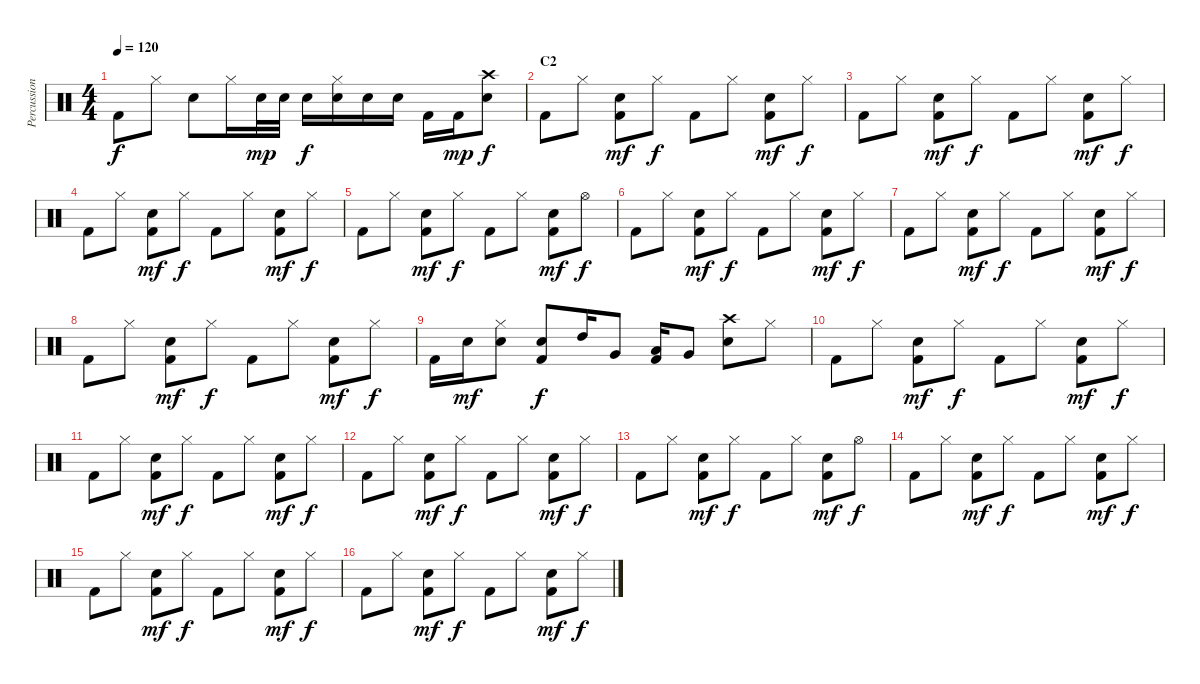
\track ("Percussions" "Percussion") {instrument percussion}
\staff {score}
\articulation defaults
\ts (4 4)
\tempo 120
\clef neutral
\ks c "Kick (hit) 2".8{dy f} "Hi-Hat (closed)".8 "Electric Snare (hit)".8 "Hi-Hat (closed)".16 "Electric Snare (hit)".32{dy mp} "Electric Snare (hit)".32 "Electric Snare (hit)".16{dy f}
("Hi-Hat (closed)" "Electric Snare (hit)").16 "Electric Snare (hit)".16 "Electric Snare (hit)".16 "Kick (hit) 2".16 "Kick (hit) 2".16{dy mp} ("Crash high (hit)" "Electric Snare (hit)").8{dy f} |
\section ("" "C2")
"Kick (hit) 2".8 "Hi-Hat (closed)".8 ("Electric Snare (hit)" "Kick (hit) 2").8{dy mf} "Hi-Hat (closed)".8{dy f} "Kick (hit) 2".8 "Hi-Hat (closed)".8 ("Electric Snare (hit)" "Kick (hit) 2").8{dy mf} "Hi-Hat (closed)".8{dy f} |
"Kick (hit) 2".8 "Hi-Hat (closed)".8 ("Electric Snare (hit)" "Kick (hit) 2").8{dy mf} "Hi-Hat (closed)".8{dy f} "Kick (hit) 2".8 "Hi-Hat (closed)".8 ("Electric Snare (hit)" "Kick (hit) 2").8{dy mf} "Hi-Hat (closed)".8{dy f} |
"Kick (hit) 2".8 "Hi-Hat (closed)".8 ("Electric Snare (hit)" "Kick (hit) 2").8{dy mf} "Hi-Hat (closed)".8{dy f} "Kick (hit) 2".8 "Hi-Hat (closed)".8 ("Electric Snare (hit)" "Kick (hit) 2").8{dy mf} "Hi-Hat (closed)".8{dy f} |
"Kick (hit) 2".8 "Hi-Hat (closed)".8 ("Electric Snare (hit)" "Kick (hit) 2").8{dy mf} "Hi-Hat (closed)".8{dy f} "Kick (hit) 2".8 "Hi-Hat (closed)".8 ("Electric Snare (hit)" "Kick (hit) 2").8{dy mf} "Hi-Hat (open)".8{dy f} |
"Kick (hit) 2".8 "Hi-Hat (closed)".8 ("Electric Snare (hit)" "Kick (hit) 2").8{dy mf} "Hi-Hat (closed)".8{dy f} "Kick (hit) 2".8 "Hi-Hat (closed)".8 ("Electric Snare (hit)" "Kick (hit) 2").8{dy mf} "Hi-Hat (closed)".8{dy f} |
"Kick (hit) 2".8 "Hi-Hat (closed)".8 ("Electric Snare (hit)" "Kick (hit) 2").8{dy mf} "Hi-Hat (closed)".8{dy f} "Kick (hit) 2".8 "Hi-Hat (closed)".8 ("Electric Snare (hit)" "Kick (hit) 2").8{dy mf} "Hi-Hat (closed)".8{dy f} |
"Kick (hit) 2".8 "Hi-Hat (closed)".8 ("Electric Snare (hit)" "Kick (hit) 2").8{dy mf} "Hi-Hat (closed)".8{dy f} "Kick (hit) 2".8 "Hi-Hat (closed)".8 ("Electric Snare (hit)" "Kick (hit) 2").8{dy mf} "Hi-Hat (closed)".8{dy f} |
"Kick (hit) 2".16 "Electric Snare (hit)".16{dy mf} ("Hi-Hat (closed)" "Electric Snare (hit)").8 ("Electric Snare (hit)" "Kick (hit) 2").8{dy f} "High Tom (hit)".16 "Very Low Tom (hit)".8 ("Low Tom (hit)" "Kick (hit) 2").16 "Very Low Tom (hit)".8 ("Crash high (hit)" "Electric Snare (hit)").8 "Hi-Hat (closed)".8 |
"Kick (hit) 2".8 "Hi-Hat (closed)".8 ("Electric Snare (hit)" "Kick (hit) 2").8{dy mf} "Hi-Hat (closed)".8{dy f} "Kick (hit) 2".8 "Hi-Hat (closed)".8 ("Electric Snare (hit)" "Kick (hit) 2").8{dy mf} "Hi-Hat (closed)".8{dy f} |
"Kick (hit) 2".8 "Hi-Hat (closed)".8 ("Electric Snare (hit)" "Kick (hit) 2").8{dy mf} "Hi-Hat (closed)".8{dy f} "Kick (hit) 2".8 "Hi-Hat (closed)".8 ("Electric Snare (hit)" "Kick (hit) 2").8{dy mf} "Hi-Hat (closed)".8{dy f} |
"Kick (hit) 2".8 "Hi-Hat (closed)".8 ("Electric Snare (hit)" "Kick (hit) 2").8{dy mf} "Hi-Hat (closed)".8{dy f} "Kick (hit) 2".8 "Hi-Hat (closed)".8 ("Electric Snare (hit)" "Kick (hit) 2").8{dy mf} "Hi-Hat (closed)".8{dy f} |
"Kick (hit) 2".8 "Hi-Hat (closed)".8 ("Electric Snare (hit)" "Kick (hit) 2").8{dy mf} "Hi-Hat (closed)".8{dy f} "Kick (hit) 2".8 "Hi-Hat (closed)".8 ("Electric Snare (hit)" "Kick (hit) 2").8{dy mf} "Hi-Hat (open)".8{dy f} |
"Kick (hit) 2".8 "Hi-Hat (closed)".8 ("Electric Snare (hit)" "Kick (hit) 2").8{dy mf} "Hi-Hat (closed)".8{dy f} "Kick (hit) 2".8 "Hi-Hat (closed)".8 ("Electric Snare (hit)" "Kick (hit) 2").8{dy mf} "Hi-Hat (closed)".8{dy f} |
"Kick (hit) 2".8 "Hi-Hat (closed)".8 ("Electric Snare (hit)" "Kick (hit) 2").8{dy mf} "Hi-Hat (closed)".8{dy f} "Kick (hit) 2".8 "Hi-Hat (closed)".8 ("Electric Snare (hit)" "Kick (hit) 2").8{dy mf} "Hi-Hat (closed)".8{dy f} |
"Kick (hit) 2".8 "Hi-Hat (closed)".8 ("Electric Snare (hit)" "Kick (hit) 2").8{dy mf} "Hi-Hat (closed)".8{dy f} "Kick (hit) 2".8 "Hi-Hat (closed)".8 ("Electric Snare (hit)" "Kick (hit) 2").8{dy mf} "Hi-Hat (closed)".8{dy f}
